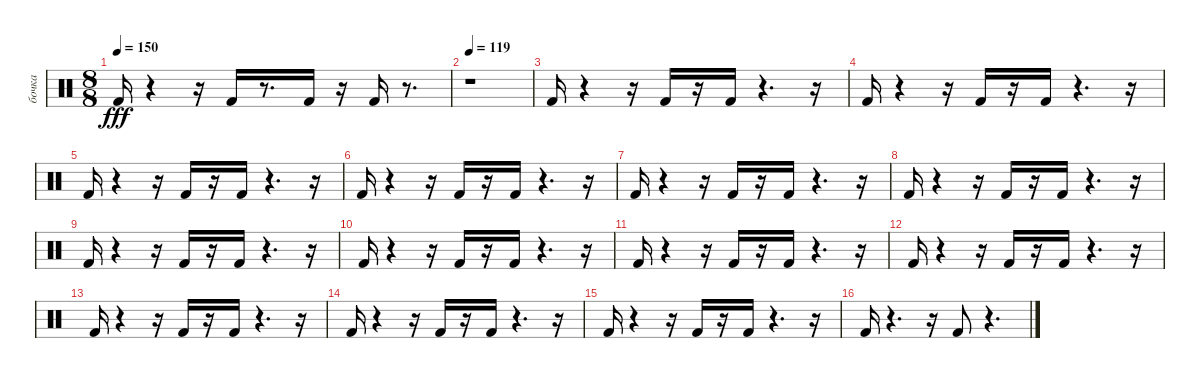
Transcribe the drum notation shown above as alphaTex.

\track ("бочка" "бочка") {instrument percussion}
\staff {score}
\articulation defaults
\ts (8 8)
\tempo 150
\clef neutral
\ks c "Kick (hit) 2".16{dy fff}
r.4 r.16 "Kick (hit) 2".16 r.8{d} "Kick (hit) 2".16 r.16 "Kick (hit) 2".16 r.8{d} |
\tempo 119
r.1 |
"Kick (hit) 2".16 r.4 r.16 "Kick (hit) 2".16 r.16 "Kick (hit) 2".16 r.4{d} r.16 |
"Kick (hit) 2".16 r.4 r.16 "Kick (hit) 2".16 r.16 "Kick (hit) 2".16 r.4{d} r.16 |
"Kick (hit) 2".16 r.4 r.16 "Kick (hit) 2".16 r.16 "Kick (hit) 2".16 r.4{d} r.16 |
"Kick (hit) 2".16 r.4 r.16 "Kick (hit) 2".16 r.16 "Kick (hit) 2".16 r.4{d} r.16 |
"Kick (hit) 2".16 r.4 r.16 "Kick (hit) 2".16 r.16 "Kick (hit) 2".16 r.4{d} r.16 |
"Kick (hit) 2".16 r.4 r.16 "Kick (hit) 2".16 r.16 "Kick (hit) 2".16 r.4{d} r.16 |
"Kick (hit) 2".16 r.4 r.16 "Kick (hit) 2".16 r.16 "Kick (hit) 2".16 r.4{d} r.16 |
"Kick (hit) 2".16 r.4 r.16 "Kick (hit) 2".16 r.16 "Kick (hit) 2".16 r.4{d} r.16 |
"Kick (hit) 2".16 r.4 r.16 "Kick (hit) 2".16 r.16 "Kick (hit) 2".16 r.4{d} r.16 |
"Kick (hit) 2".16 r.4 r.16 "Kick (hit) 2".16 r.16 "Kick (hit) 2".16 r.4{d} r.16 |
"Kick (hit) 2".16 r.4 r.16 "Kick (hit) 2".16 r.16 "Kick (hit) 2".16 r.4{d} r.16 |
"Kick (hit) 2".16 r.4 r.16 "Kick (hit) 2".16 r.16 "Kick (hit) 2".16 r.4{d} r.16 |
"Kick (hit) 2".16 r.4 r.16 "Kick (hit) 2".16 r.16 "Kick (hit) 2".16 r.4{d} r.16 |
"Kick (hit) 2".16 r.4{d} r.16 "Kick (hit) 2".8 r.4{d}
